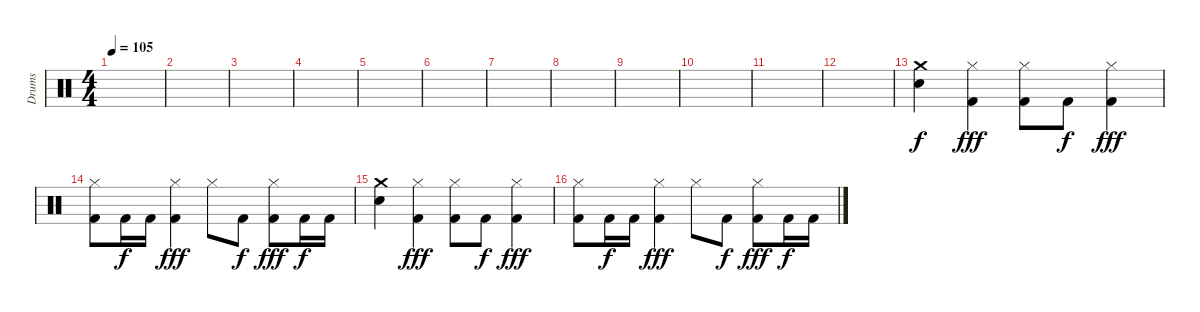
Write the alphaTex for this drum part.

\track ("Drums" "Drums") {instrument percussion}
\staff {score}
\articulation defaults
\ts (4 4)
\tempo 105
\clef neutral
\ks c
|
|
|
|
|
|
|
|
|
|
|
|
("Crash medium (hit)" "Electric Snare (hit)").4 ("Hi-Hat (closed)" "Kick (hit) 2").4{dy fff} ("Hi-Hat (closed)" "Kick (hit) 2").8 "Kick (hit) 2".8{dy f} ("Hi-Hat (closed)" "Kick (hit) 2").4{dy fff} |
("Hi-Hat (closed)" "Kick (hit) 2").8 "Kick (hit) 2".16{dy f} "Kick (hit) 2".16 ("Hi-Hat (closed)" "Kick (hit) 2").4{dy fff} "Hi-Hat (closed)".8 "Kick (hit) 2".8{dy f} ("Hi-Hat (closed)" "Kick (hit) 2").8{dy fff} "Kick (hit) 2".16{dy f} "Kick (hit) 2".16 |
("Crash medium (hit)" "Electric Snare (hit)").4 ("Hi-Hat (closed)" "Kick (hit) 2").4{dy fff} ("Hi-Hat (closed)" "Kick (hit) 2").8 "Kick (hit) 2".8{dy f} ("Hi-Hat (closed)" "Kick (hit) 2").4{dy fff} |
("Hi-Hat (closed)" "Kick (hit) 2").8 "Kick (hit) 2".16{dy f} "Kick (hit) 2".16 ("Hi-Hat (closed)" "Kick (hit) 2").4{dy fff} "Hi-Hat (closed)".8 "Kick (hit) 2".8{dy f} ("Hi-Hat (closed)" "Kick (hit) 2").8{dy fff} "Kick (hit) 2".16{dy f} "Kick (hit) 2".16
